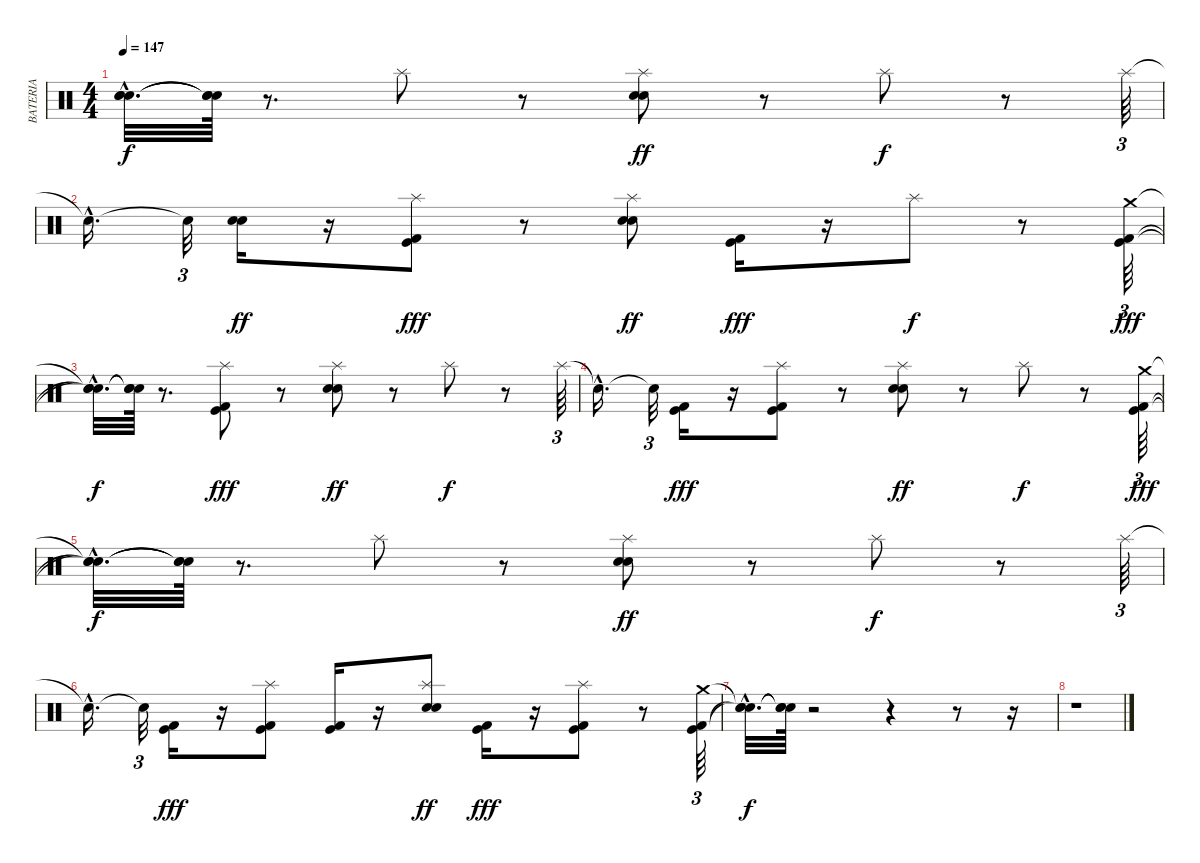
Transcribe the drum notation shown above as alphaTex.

\track ("BATERIA" "BATERIA") {instrument percussion}
\staff {score}
\articulation defaults
\ts (4 4)
\tempo 147
\clef neutral
\ks c
("Snare (hit)"{hac t} "Snare (hit)"{hac t} "Snare (hit)"{hac t}).32{d dy f} ("Snare (hit)"{t} "Snare (hit)"{t} "Snare (hit)"{t}).64 r.8{d} "Splash (hit)".8 r.8 ("Electric Snare (hit)" "Snare (hit) 2" "Splash (hit)").8{dy ff} r.8 "Splash (hit)".8{dy f} r.8 "Splash (hit)".64{tu (3 2)} |
"Snare (hit)"{hac t}.16{d} "Snare (hit)"{t}.32{tu (3 2)} ("Electric Snare (hit)" "Snare (hit) 2").16{dy ff} r.16 ("Kick (hit) 2" "Kick (hit)" "Splash (hit)").8{dy fff} r.8 ("Electric Snare (hit)" "Snare (hit) 2" "Splash (hit)").8{dy ff} ("Kick (hit) 2" "Kick (hit)").16{dy fff} r.16 "Splash (hit)".8{dy f} r.8 ("Kick (hit) 2" "Kick (hit)" "Crash medium (hit)").64{tu (3 2) dy fff} |
("Snare (hit)"{hac t} "Snare (hit)"{hac t} "Snare (hit)"{hac t}).32{d dy f} ("Snare (hit)"{t} "Snare (hit)"{t} "Snare (hit)"{t}).64 r.8{d} ("Kick (hit) 2" "Kick (hit)" "Splash (hit)").8{dy fff} r.8 ("Electric Snare (hit)" "Snare (hit) 2" "Splash (hit)").8{dy ff} r.8 "Splash (hit)".8{dy f} r.8 "Splash (hit)".64{tu (3 2)} |
"Snare (hit)"{hac t}.16{d} "Snare (hit)"{t}.32{tu (3 2)} ("Kick (hit) 2" "Kick (hit)").16{dy fff} r.16 ("Kick (hit) 2" "Kick (hit)" "Splash (hit)").8 r.8 ("Electric Snare (hit)" "Snare (hit) 2" "Splash (hit)").8{dy ff} r.8 "Splash (hit)".8{dy f} r.8 ("Kick (hit) 2" "Kick (hit)" "Crash medium (hit)").64{tu (3 2) dy fff} |
("Snare (hit)"{hac t} "Snare (hit)"{hac t} "Snare (hit)"{hac t}).32{d dy f} ("Snare (hit)"{t} "Snare (hit)"{t} "Snare (hit)"{t}).64 r.8{d} "Splash (hit)".8 r.8 ("Electric Snare (hit)" "Snare (hit) 2" "Splash (hit)").8{dy ff} r.8 "Splash (hit)".8{dy f} r.8 "Splash (hit)".64{tu (3 2)} |
"Snare (hit)"{hac t}.16{d} "Snare (hit)"{t}.32{tu (3 2)} ("Kick (hit) 2" "Kick (hit)").16{dy fff} r.16 ("Kick (hit) 2" "Kick (hit)" "Splash (hit)").8 ("Kick (hit) 2" "Kick (hit)").16 r.16 ("Electric Snare (hit)" "Snare (hit) 2" "Splash (hit)").8{dy ff} ("Kick (hit) 2" "Kick (hit)").16{dy fff} r.16 ("Kick (hit) 2" "Kick (hit)" "Splash (hit)").8 r.8 ("Kick (hit) 2" "Kick (hit)" "Crash medium (hit)").64{tu (3 2)} |
("Snare (hit)"{hac t} "Snare (hit)"{hac t} "Snare (hit)"{hac t}).32{d dy f} ("Snare (hit)"{t} "Snare (hit)"{t} "Snare (hit)"{t}).64 r.2 r.4 r.8 r.16 |
r.1
